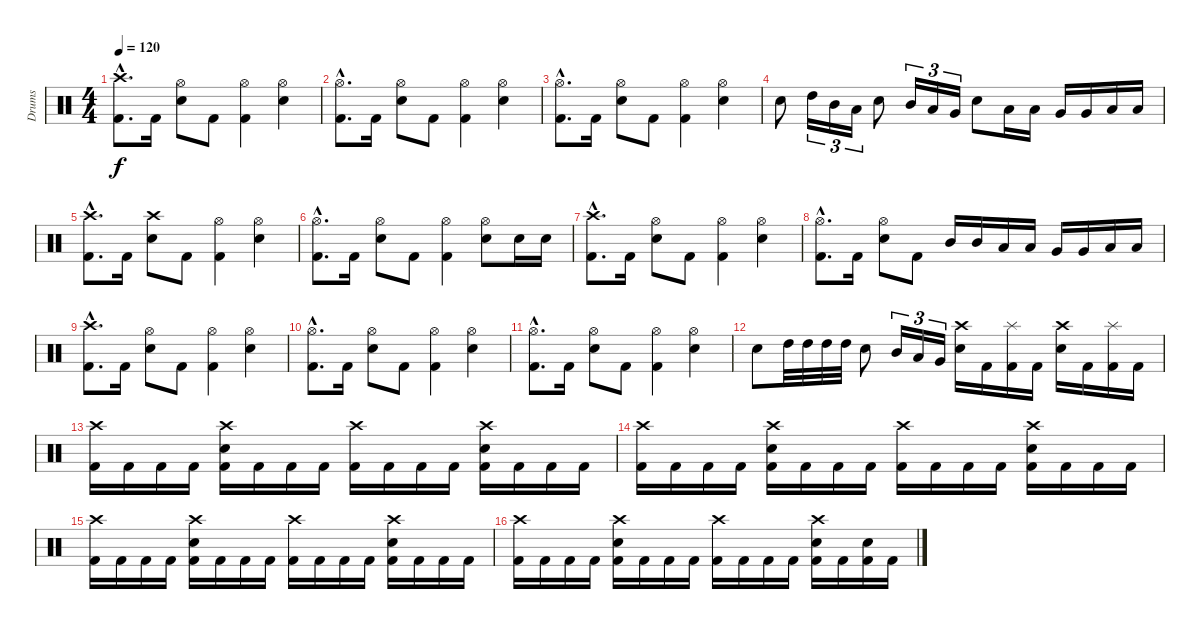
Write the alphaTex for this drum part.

\track ("Drums" "Drums") {instrument percussion}
\staff {score}
\articulation defaults
\ts (4 4)
\tempo 120
\clef neutral
\ks c
("Crash high (hit)"{hac} "Kick (hit) 2"{hac}).8{d dy f} "Kick (hit) 2".16 ("Hi-Hat (open)" "Snare (hit) 2").8 "Kick (hit) 2".8 ("Hi-Hat (open)" "Kick (hit) 2").4 ("Hi-Hat (open)" "Snare (hit) 2").4 |
("Hi-Hat (open)"{hac} "Kick (hit) 2"{hac}).8{d} "Kick (hit) 2".16 ("Hi-Hat (open)" "Snare (hit) 2").8 "Kick (hit) 2".8 ("Hi-Hat (open)" "Kick (hit) 2").4 ("Hi-Hat (open)" "Snare (hit) 2").4 |
("Hi-Hat (open)"{hac} "Kick (hit) 2"{hac}).8{d} "Kick (hit) 2".16 ("Hi-Hat (open)" "Snare (hit) 2").8 "Kick (hit) 2".8 ("Hi-Hat (open)" "Kick (hit) 2").4 ("Hi-Hat (open)" "Snare (hit) 2").4 |
"Snare (hit) 2".8 "High Tom (hit)".16{tu (3 2)} "Mid Tom (hit)".16{tu (3 2)} "Low Tom (hit)".16{tu (3 2)} "Snare (hit) 2".8 "Mid Tom (hit)".16{tu (3 2)} "Low Tom (hit)".16{tu (3 2)} "Very Low Tom (hit)".16{tu (3 2)} "Snare (hit) 2".8 "Low Tom (hit)".16 "Low Tom (hit)".16 "Very Low Tom (hit)".16 "Very Low Tom (hit)".16 "Low Floor Tom (hit)".16 "Low Floor Tom (hit)".16 |
("Crash high (hit)"{hac} "Kick (hit) 2"{hac}).8{d} "Kick (hit) 2".16 ("Crash high (hit)" "Snare (hit) 2").8 "Kick (hit) 2".8 ("Hi-Hat (open)" "Kick (hit) 2").4 ("Hi-Hat (open)" "Snare (hit) 2").4 |
("Hi-Hat (open)"{hac} "Kick (hit) 2"{hac}).8{d} "Kick (hit) 2".16 ("Hi-Hat (open)" "Snare (hit) 2").8 "Kick (hit) 2".8 ("Hi-Hat (open)" "Kick (hit) 2").4 ("Hi-Hat (open)" "Snare (hit) 2").8 "Snare (hit) 2".16 "Snare (hit) 2".16 |
("Crash high (hit)"{hac} "Kick (hit) 2"{hac}).8{d} "Kick (hit) 2".16 ("Hi-Hat (open)" "Snare (hit) 2").8 "Kick (hit) 2".8 ("Hi-Hat (open)" "Kick (hit) 2").4 ("Hi-Hat (open)" "Snare (hit) 2").4 |
("Hi-Hat (open)"{hac} "Kick (hit) 2"{hac}).8{d} "Kick (hit) 2".16 ("Hi-Hat (open)" "Snare (hit) 2").8 "Kick (hit) 2".8 "Mid Tom (hit)".16 "Mid Tom (hit)".16 "Low Tom (hit)".16 "Low Tom (hit)".16 "Very Low Tom (hit)".16 "Very Low Tom (hit)".16 "Low Floor Tom (hit)".16 "Low Floor Tom (hit)".16 |
("Crash high (hit)"{hac} "Kick (hit) 2"{hac}).8{d} "Kick (hit) 2".16 ("Hi-Hat (open)" "Snare (hit) 2").8 "Kick (hit) 2".8 ("Hi-Hat (open)" "Kick (hit) 2").4 ("Hi-Hat (open)" "Snare (hit) 2").4 |
("Hi-Hat (open)"{hac} "Kick (hit) 2"{hac}).8{d} "Kick (hit) 2".16 ("Hi-Hat (open)" "Snare (hit) 2").8 "Kick (hit) 2".8 ("Hi-Hat (open)" "Kick (hit) 2").4 ("Hi-Hat (open)" "Snare (hit) 2").4 |
("Hi-Hat (open)"{hac} "Kick (hit) 2"{hac}).8{d} "Kick (hit) 2".16 ("Hi-Hat (open)" "Snare (hit) 2").8 "Kick (hit) 2".8 ("Hi-Hat (open)" "Kick (hit) 2").4 ("Hi-Hat (open)" "Snare (hit) 2").4 |
"Snare (hit) 2".8 "High Tom (hit)".32 "High Tom (hit)".32 "High Tom (hit)".32 "High Tom (hit)".32 "Snare (hit) 2".8 "Mid Tom (hit)".16{tu (3 2)} "Low Tom (hit)".16{tu (3 2)} "Very Low Tom (hit)".16{tu (3 2)} ("Crash high (hit)" "Snare (hit) 2").16 "Kick (hit) 2".16 ("Splash (hit)" "Kick (hit) 2").16 "Kick (hit) 2".16 ("Crash high (hit)" "Snare (hit) 2").16 "Kick (hit) 2".16 ("Splash (hit)" "Kick (hit) 2").16 "Kick (hit) 2".16 |
("Crash high (hit)" "Kick (hit) 2").16 "Kick (hit) 2".16 "Kick (hit) 2".16 "Kick (hit) 2".16 ("Crash high (hit)" "Snare (hit) 2" "Kick (hit) 2").16 "Kick (hit) 2".16 "Kick (hit) 2".16 "Kick (hit) 2".16 ("Crash high (hit)" "Kick (hit) 2").16 "Kick (hit) 2".16 "Kick (hit) 2".16 "Kick (hit) 2".16 ("Crash high (hit)" "Snare (hit) 2" "Kick (hit) 2").16 "Kick (hit) 2".16 "Kick (hit) 2".16 "Kick (hit) 2".16 |
("Crash high (hit)" "Kick (hit) 2").16 "Kick (hit) 2".16 "Kick (hit) 2".16 "Kick (hit) 2".16 ("Crash high (hit)" "Snare (hit) 2" "Kick (hit) 2").16 "Kick (hit) 2".16 "Kick (hit) 2".16 "Kick (hit) 2".16 ("Crash high (hit)" "Kick (hit) 2").16 "Kick (hit) 2".16 "Kick (hit) 2".16 "Kick (hit) 2".16 ("Crash high (hit)" "Snare (hit) 2" "Kick (hit) 2").16 "Kick (hit) 2".16 "Kick (hit) 2".16 "Kick (hit) 2".16 |
("Crash high (hit)" "Kick (hit) 2").16 "Kick (hit) 2".16 "Kick (hit) 2".16 "Kick (hit) 2".16 ("Crash high (hit)" "Snare (hit) 2" "Kick (hit) 2").16 "Kick (hit) 2".16 "Kick (hit) 2".16 "Kick (hit) 2".16 ("Crash high (hit)" "Kick (hit) 2").16 "Kick (hit) 2".16 "Kick (hit) 2".16 "Kick (hit) 2".16 ("Crash high (hit)" "Snare (hit) 2" "Kick (hit) 2").16 "Kick (hit) 2".16 "Kick (hit) 2".16 "Kick (hit) 2".16 |
("Crash high (hit)" "Kick (hit) 2").16 "Kick (hit) 2".16 "Kick (hit) 2".16 "Kick (hit) 2".16 ("Crash high (hit)" "Snare (hit) 2" "Kick (hit) 2").16 "Kick (hit) 2".16 "Kick (hit) 2".16 "Kick (hit) 2".16 ("Crash high (hit)" "Kick (hit) 2").16 "Kick (hit) 2".16 "Kick (hit) 2".16 "Kick (hit) 2".16 ("Crash high (hit)" "Snare (hit) 2" "Kick (hit) 2").16 "Kick (hit) 2".16 ("Snare (hit) 2" "Kick (hit) 2").16 "Kick (hit) 2".16
